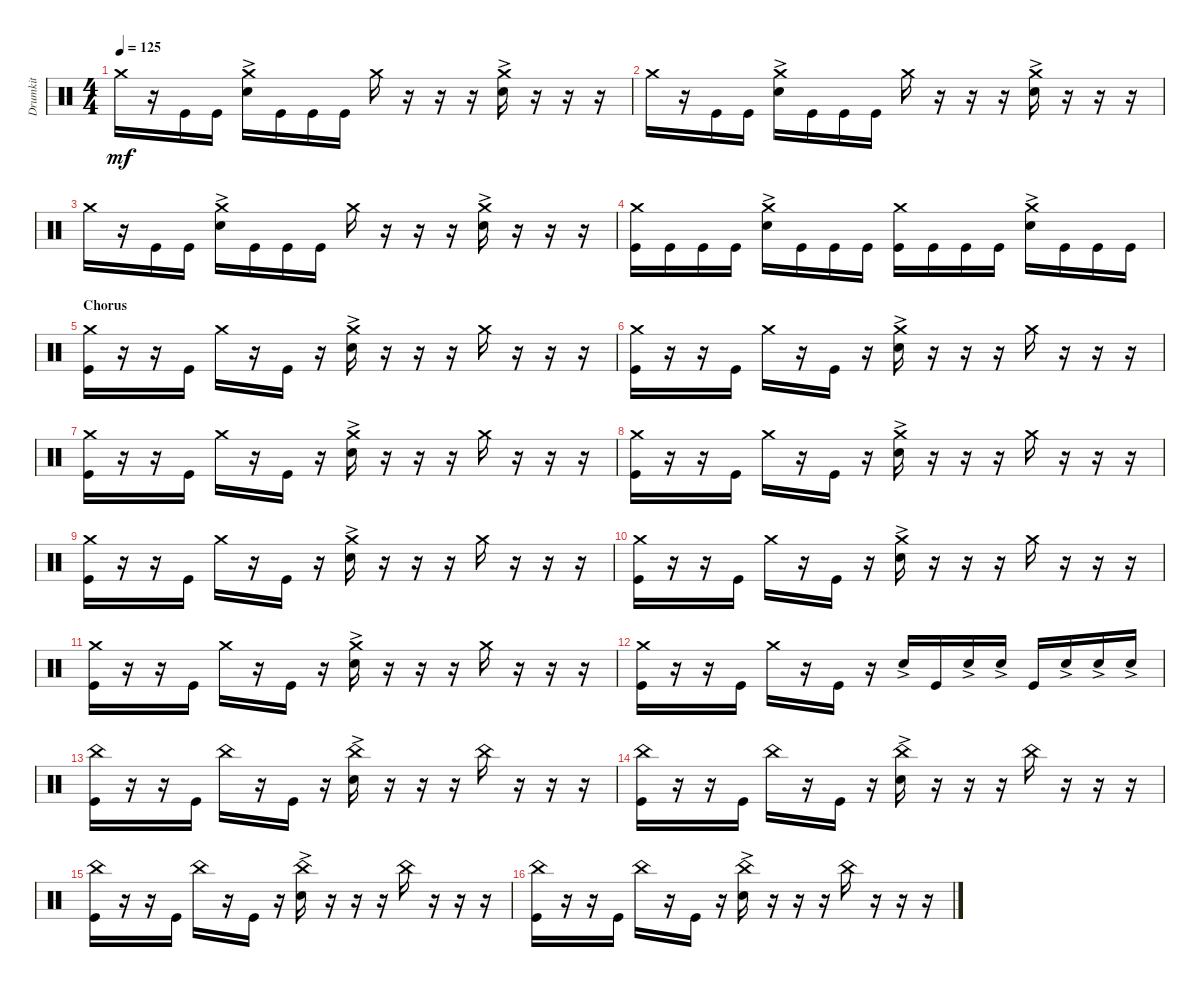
\track ("Drumkit" "Drumkit") {instrument percussion}
\staff {score}
\articulation defaults
\ts (4 4)
\tempo 125
\clef neutral
\ks c "Crash medium (hit)".16{dy mf}
r.16 "Kick (hit)".16 "Kick (hit)".16 ("Crash medium (hit)" "Snare (hit) 2"{ac}).16 "Kick (hit)".16 "Kick (hit)".16 "Kick (hit)".16 "Crash medium (hit)".16 r.16 r.16 r.16 ("Crash medium (hit)" "Snare (hit) 2"{ac}).16 r.16 r.16 r.16 |
"Crash medium (hit)".16 r.16 "Kick (hit)".16 "Kick (hit)".16 ("Crash medium (hit)" "Snare (hit) 2"{ac}).16 "Kick (hit)".16 "Kick (hit)".16 "Kick (hit)".16 "Crash medium (hit)".16 r.16 r.16 r.16 ("Crash medium (hit)" "Snare (hit) 2"{ac}).16 r.16 r.16 r.16 |
"Crash medium (hit)".16 r.16 "Kick (hit)".16 "Kick (hit)".16 ("Crash medium (hit)" "Snare (hit) 2"{ac}).16 "Kick (hit)".16 "Kick (hit)".16 "Kick (hit)".16 "Crash medium (hit)".16 r.16 r.16 r.16 ("Crash medium (hit)" "Snare (hit) 2"{ac}).16 r.16 r.16 r.16 |
("Crash medium (hit)" "Kick (hit)").16 "Kick (hit)".16 "Kick (hit)".16 "Kick (hit)".16 ("Crash medium (hit)" "Snare (hit) 2"{ac}).16 "Kick (hit)".16 "Kick (hit)".16 "Kick (hit)".16 ("Crash medium (hit)" "Kick (hit)").16 "Kick (hit)".16 "Kick (hit)".16 "Kick (hit)".16 ("Crash medium (hit)" "Snare (hit) 2"{ac}).16 "Kick (hit)".16 "Kick (hit)".16 "Kick (hit)".16 |
\section ("" "Chorus")
("Crash medium (hit)" "Kick (hit)").16 r.16 r.16 "Kick (hit)".16 "Crash medium (hit)".16 r.16 "Kick (hit)".16 r.16 ("Crash medium (hit)" "Snare (hit) 2"{ac}).16 r.16 r.16 r.16 "Crash medium (hit)".16 r.16 r.16 r.16 |
("Crash medium (hit)" "Kick (hit)").16 r.16 r.16 "Kick (hit)".16 "Crash medium (hit)".16 r.16 "Kick (hit)".16 r.16 ("Crash medium (hit)" "Snare (hit) 2"{ac}).16 r.16 r.16 r.16 "Crash medium (hit)".16 r.16 r.16 r.16 |
("Crash medium (hit)" "Kick (hit)").16 r.16 r.16 "Kick (hit)".16 "Crash medium (hit)".16 r.16 "Kick (hit)".16 r.16 ("Crash medium (hit)" "Snare (hit) 2"{ac}).16 r.16 r.16 r.16 "Crash medium (hit)".16 r.16 r.16 r.16 |
("Crash medium (hit)" "Kick (hit)").16 r.16 r.16 "Kick (hit)".16 "Crash medium (hit)".16 r.16 "Kick (hit)".16 r.16 ("Crash medium (hit)" "Snare (hit) 2"{ac}).16 r.16 r.16 r.16 "Crash medium (hit)".16 r.16 r.16 r.16 |
("Crash medium (hit)" "Kick (hit)").16 r.16 r.16 "Kick (hit)".16 "Crash medium (hit)".16 r.16 "Kick (hit)".16 r.16 ("Crash medium (hit)" "Snare (hit) 2"{ac}).16 r.16 r.16 r.16 "Crash medium (hit)".16 r.16 r.16 r.16 |
("Crash medium (hit)" "Kick (hit)").16 r.16 r.16 "Kick (hit)".16 "Crash medium (hit)".16 r.16 "Kick (hit)".16 r.16 ("Crash medium (hit)" "Snare (hit) 2"{ac}).16 r.16 r.16 r.16 "Crash medium (hit)".16 r.16 r.16 r.16 |
("Crash medium (hit)" "Kick (hit)").16 r.16 r.16 "Kick (hit)".16 "Crash medium (hit)".16 r.16 "Kick (hit)".16 r.16 ("Crash medium (hit)" "Snare (hit) 2"{ac}).16 r.16 r.16 r.16 "Crash medium (hit)".16 r.16 r.16 r.16 |
("Crash medium (hit)" "Kick (hit)").16 r.16 r.16 "Kick (hit)".16 "Crash medium (hit)".16 r.16 "Kick (hit)".16 r.16 "Snare (hit) 2"{ac}.16 "Kick (hit)".16 "Snare (hit) 2"{ac}.16 "Snare (hit) 2"{ac}.16 "Kick (hit)".16 "Snare (hit) 2"{ac}.16 "Snare (hit) 2"{ac}.16 "Snare (hit) 2"{ac}.16 |
("Kick (hit)" "China (hit)").16 r.16 r.16 "Kick (hit)".16 "China (hit)".16 r.16 "Kick (hit)".16 r.16 ("Snare (hit) 2"{ac} "China (hit)").16 r.16 r.16 r.16 "China (hit)".16 r.16 r.16 r.16 |
("Kick (hit)" "China (hit)").16 r.16 r.16 "Kick (hit)".16 "China (hit)".16 r.16 "Kick (hit)".16 r.16 ("Snare (hit) 2"{ac} "China (hit)").16 r.16 r.16 r.16 "China (hit)".16 r.16 r.16 r.16 |
("Kick (hit)" "China (hit)").16 r.16 r.16 "Kick (hit)".16 "China (hit)".16 r.16 "Kick (hit)".16 r.16 ("Snare (hit) 2"{ac} "China (hit)").16 r.16 r.16 r.16 "China (hit)".16 r.16 r.16 r.16 |
("Kick (hit)" "China (hit)").16 r.16 r.16 "Kick (hit)".16 "China (hit)".16 r.16 "Kick (hit)".16 r.16 ("Snare (hit) 2"{ac} "China (hit)").16 r.16 r.16 r.16 "China (hit)".16 r.16 r.16 r.16
